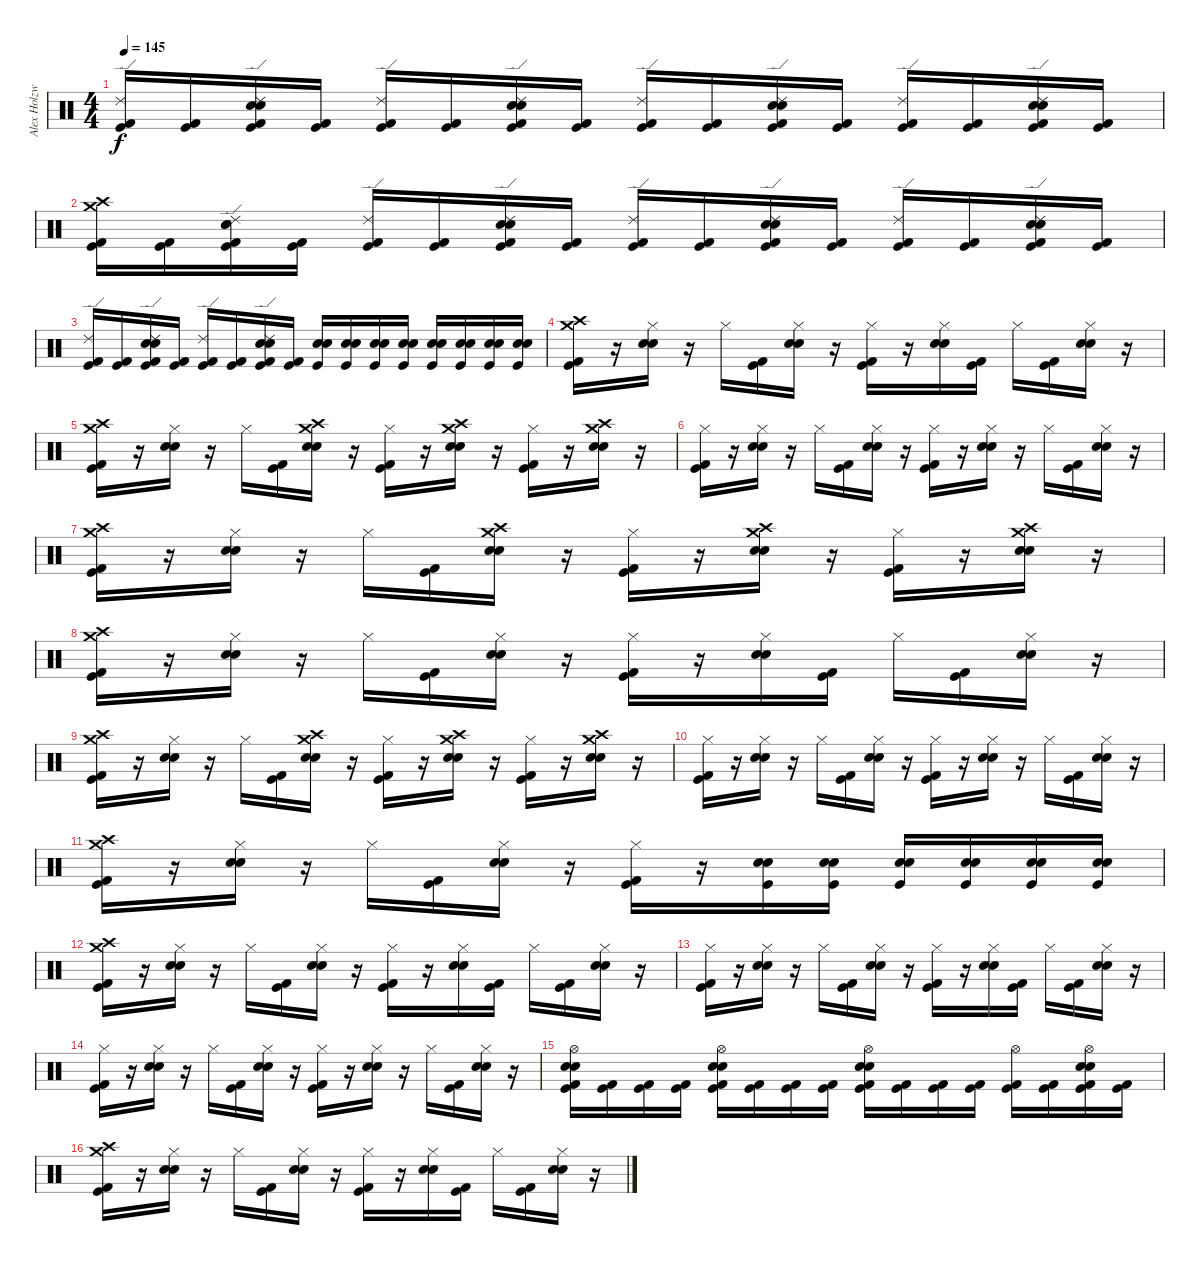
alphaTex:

\track ("Alex Holzwarth" "Alex Holzw") {instrument percussion}
\staff {score}
\articulation defaults
\ts (4 4)
\tempo 145
\clef neutral
\ks c
("Ride (edge) 2" "Kick (hit) 2" "Kick (hit)").16{dy f} ("Kick (hit) 2" "Kick (hit)").16 ("Ride (edge) 2" "Snare (hit) 2" "Electric Snare (hit)" "Kick (hit) 2" "Kick (hit)").16 ("Kick (hit) 2" "Kick (hit)").16 ("Ride (edge) 2" "Kick (hit) 2" "Kick (hit)").16 ("Kick (hit) 2" "Kick (hit)").16 ("Ride (edge) 2" "Electric Snare (hit)" "Snare (hit) 2" "Kick (hit) 2" "Kick (hit)").16 ("Kick (hit) 2" "Kick (hit)").16 ("Ride (edge) 2" "Kick (hit) 2" "Kick (hit)").16 ("Kick (hit) 2" "Kick (hit)").16 ("Ride (edge) 2" "Snare (hit) 2" "Electric Snare (hit)" "Kick (hit) 2" "Kick (hit)").16 ("Kick (hit) 2" "Kick (hit)").16 ("Ride (edge) 2" "Kick (hit) 2" "Kick (hit)").16 ("Kick (hit) 2" "Kick (hit)").16 ("Ride (edge) 2" "Electric Snare (hit)" "Snare (hit) 2" "Kick (hit) 2" "Kick (hit)").16 ("Kick (hit) 2" "Kick (hit)").16 |
("Crash high (hit)" "Crash medium (hit)" "Kick (hit) 2" "Kick (hit)").16 ("Kick (hit) 2" "Kick (hit)").16 ("Ride (edge) 2" "Snare (hit) 2" "Electric Snare (hit)" "Kick (hit) 2" "Kick (hit)").16 ("Kick (hit) 2" "Kick (hit)").16 ("Ride (edge) 2" "Kick (hit) 2" "Kick (hit)").16 ("Kick (hit) 2" "Kick (hit)").16 ("Ride (edge) 2" "Electric Snare (hit)" "Snare (hit) 2" "Kick (hit) 2" "Kick (hit)").16 ("Kick (hit) 2" "Kick (hit)").16 ("Ride (edge) 2" "Kick (hit) 2" "Kick (hit)").16 ("Kick (hit) 2" "Kick (hit)").16 ("Ride (edge) 2" "Snare (hit) 2" "Electric Snare (hit)" "Kick (hit) 2" "Kick (hit)").16 ("Kick (hit) 2" "Kick (hit)").16 ("Ride (edge) 2" "Kick (hit) 2" "Kick (hit)").16 ("Kick (hit) 2" "Kick (hit)").16 ("Ride (edge) 2" "Electric Snare (hit)" "Snare (hit) 2" "Kick (hit) 2" "Kick (hit)").16 ("Kick (hit) 2" "Kick (hit)").16 |
("Ride (edge) 2" "Kick (hit) 2" "Kick (hit)").16 ("Kick (hit) 2" "Kick (hit)").16 ("Ride (edge) 2" "Snare (hit) 2" "Electric Snare (hit)" "Kick (hit) 2" "Kick (hit)").16 ("Kick (hit) 2" "Kick (hit)").16 ("Ride (edge) 2" "Kick (hit) 2" "Kick (hit)").16 ("Kick (hit) 2" "Kick (hit)").16 ("Ride (edge) 2" "Electric Snare (hit)" "Snare (hit) 2" "Kick (hit) 2" "Kick (hit)").16 ("Kick (hit) 2" "Kick (hit)").16 ("Kick (hit)" "Electric Snare (hit)" "Snare (hit) 2").16 ("Kick (hit)" "Electric Snare (hit)" "Snare (hit) 2").16 ("Kick (hit)" "Electric Snare (hit)" "Snare (hit) 2").16 ("Kick (hit)" "Electric Snare (hit)" "Snare (hit) 2").16 ("Kick (hit)" "Electric Snare (hit)" "Snare (hit) 2").16 ("Kick (hit)" "Electric Snare (hit)" "Snare (hit) 2").16 ("Kick (hit)" "Electric Snare (hit)" "Snare (hit) 2").16 ("Kick (hit)" "Electric Snare (hit)" "Snare (hit) 2").16 |
("Crash high (hit)" "Crash medium (hit)" "Kick (hit) 2" "Kick (hit)").16 r.16 ("Hi-Hat (closed)" "Electric Snare (hit)" "Snare (hit) 2").16 r.16 "Hi-Hat (closed)".16 ("Kick (hit)" "Kick (hit) 2").16 ("Electric Snare (hit)" "Snare (hit) 2" "Hi-Hat (closed)").16 r.16 ("Kick (hit) 2" "Hi-Hat (closed)" "Kick (hit)").16 r.16 ("Electric Snare (hit)" "Hi-Hat (closed)" "Snare (hit) 2").16 ("Kick (hit) 2" "Kick (hit)").16 "Hi-Hat (closed)".16 ("Kick (hit) 2" "Kick (hit)").16 ("Electric Snare (hit)" "Snare (hit) 2" "Hi-Hat (closed)").16 r.16 |
("Crash medium (hit)" "Crash high (hit)" "Kick (hit) 2" "Kick (hit)").16 r.16 ("Electric Snare (hit)" "Hi-Hat (closed)" "Snare (hit) 2").16 r.16 "Hi-Hat (closed)".16 ("Kick (hit) 2" "Kick (hit)").16 ("Crash medium (hit)" "Crash high (hit)" "Electric Snare (hit)" "Snare (hit) 2").16 r.16 ("Hi-Hat (closed)" "Kick (hit) 2" "Kick (hit)").16 r.16 ("Crash high (hit)" "Crash medium (hit)" "Electric Snare (hit)" "Snare (hit) 2").16 r.16 ("Hi-Hat (closed)" "Kick (hit) 2" "Kick (hit)").16 r.16 ("Crash high (hit)" "Crash medium (hit)" "Electric Snare (hit)" "Snare (hit) 2").16 r.16 |
("Hi-Hat (closed)" "Kick (hit) 2" "Kick (hit)").16 r.16 ("Hi-Hat (closed)" "Electric Snare (hit)" "Snare (hit) 2").16 r.16 "Hi-Hat (closed)".16 ("Kick (hit) 2" "Kick (hit)").16 ("Electric Snare (hit)" "Snare (hit) 2" "Hi-Hat (closed)").16 r.16 ("Hi-Hat (closed)" "Kick (hit) 2" "Kick (hit)").16 r.16 ("Hi-Hat (closed)" "Electric Snare (hit)" "Snare (hit) 2").16 r.16 "Hi-Hat (closed)".16 ("Kick (hit) 2" "Kick (hit)").16 ("Electric Snare (hit)" "Snare (hit) 2" "Hi-Hat (closed)").16 r.16 |
("Crash high (hit)" "Crash medium (hit)" "Kick (hit) 2" "Kick (hit)").16 r.16 ("Hi-Hat (closed)" "Electric Snare (hit)" "Snare (hit) 2").16 r.16 "Hi-Hat (closed)".16 ("Kick (hit) 2" "Kick (hit)").16 ("Crash medium (hit)" "Crash high (hit)" "Electric Snare (hit)" "Snare (hit) 2").16 r.16 ("Hi-Hat (closed)" "Kick (hit) 2" "Kick (hit)").16 r.16 ("Crash high (hit)" "Crash medium (hit)" "Electric Snare (hit)" "Snare (hit) 2").16 r.16 ("Hi-Hat (closed)" "Kick (hit) 2" "Kick (hit)").16 r.16 ("Crash medium (hit)" "Crash high (hit)" "Electric Snare (hit)" "Snare (hit) 2").16 r.16 |
("Crash high (hit)" "Crash medium (hit)" "Kick (hit) 2" "Kick (hit)").16 r.16 ("Hi-Hat (closed)" "Electric Snare (hit)" "Snare (hit) 2").16 r.16 "Hi-Hat (closed)".16 ("Kick (hit)" "Kick (hit) 2").16 ("Electric Snare (hit)" "Snare (hit) 2" "Hi-Hat (closed)").16 r.16 ("Kick (hit) 2" "Hi-Hat (closed)" "Kick (hit)").16 r.16 ("Electric Snare (hit)" "Hi-Hat (closed)" "Snare (hit) 2").16 ("Kick (hit) 2" "Kick (hit)").16 "Hi-Hat (closed)".16 ("Kick (hit) 2" "Kick (hit)").16 ("Electric Snare (hit)" "Snare (hit) 2" "Hi-Hat (closed)").16 r.16 |
("Crash medium (hit)" "Crash high (hit)" "Kick (hit) 2" "Kick (hit)").16 r.16 ("Electric Snare (hit)" "Hi-Hat (closed)" "Snare (hit) 2").16 r.16 "Hi-Hat (closed)".16 ("Kick (hit) 2" "Kick (hit)").16 ("Crash medium (hit)" "Crash high (hit)" "Electric Snare (hit)" "Snare (hit) 2").16 r.16 ("Hi-Hat (closed)" "Kick (hit) 2" "Kick (hit)").16 r.16 ("Crash high (hit)" "Crash medium (hit)" "Electric Snare (hit)" "Snare (hit) 2").16 r.16 ("Hi-Hat (closed)" "Kick (hit) 2" "Kick (hit)").16 r.16 ("Crash high (hit)" "Crash medium (hit)" "Electric Snare (hit)" "Snare (hit) 2").16 r.16 |
("Hi-Hat (closed)" "Kick (hit) 2" "Kick (hit)").16 r.16 ("Hi-Hat (closed)" "Electric Snare (hit)" "Snare (hit) 2").16 r.16 "Hi-Hat (closed)".16 ("Kick (hit) 2" "Kick (hit)").16 ("Electric Snare (hit)" "Snare (hit) 2" "Hi-Hat (closed)").16 r.16 ("Hi-Hat (closed)" "Kick (hit) 2" "Kick (hit)").16 r.16 ("Hi-Hat (closed)" "Electric Snare (hit)" "Snare (hit) 2").16 r.16 "Hi-Hat (closed)".16 ("Kick (hit) 2" "Kick (hit)").16 ("Electric Snare (hit)" "Snare (hit) 2" "Hi-Hat (closed)").16 r.16 |
("Crash high (hit)" "Crash medium (hit)" "Kick (hit) 2" "Kick (hit)").16 r.16 ("Hi-Hat (closed)" "Electric Snare (hit)" "Snare (hit) 2").16 r.16 "Hi-Hat (closed)".16 ("Kick (hit) 2" "Kick (hit)").16 ("Electric Snare (hit)" "Snare (hit) 2" "Hi-Hat (closed)").16 r.16 ("Hi-Hat (closed)" "Kick (hit) 2" "Kick (hit)").16 r.16 ("Kick (hit)" "Electric Snare (hit)" "Snare (hit) 2").16 ("Kick (hit)" "Electric Snare (hit)" "Snare (hit) 2").16 ("Kick (hit)" "Electric Snare (hit)" "Snare (hit) 2").16 ("Kick (hit)" "Electric Snare (hit)" "Snare (hit) 2").16 ("Kick (hit)" "Electric Snare (hit)" "Snare (hit) 2").16 ("Kick (hit)" "Electric Snare (hit)" "Snare (hit) 2").16 |
("Crash medium (hit)" "Crash high (hit)" "Kick (hit) 2" "Kick (hit)").16 r.16 ("Hi-Hat (closed)" "Electric Snare (hit)" "Snare (hit) 2").16 r.16 "Hi-Hat (closed)".16 ("Kick (hit) 2" "Kick (hit)").16 ("Electric Snare (hit)" "Snare (hit) 2" "Hi-Hat (closed)").16 r.16 ("Hi-Hat (closed)" "Kick (hit) 2" "Kick (hit)").16 r.16 ("Hi-Hat (closed)" "Electric Snare (hit)" "Snare (hit) 2").16 ("Kick (hit) 2" "Kick (hit)").16 "Hi-Hat (closed)".16 ("Kick (hit) 2" "Kick (hit)").16 ("Electric Snare (hit)" "Snare (hit) 2" "Hi-Hat (closed)").16 r.16 |
("Hi-Hat (closed)" "Kick (hit) 2" "Kick (hit)").16 r.16 ("Hi-Hat (closed)" "Electric Snare (hit)" "Snare (hit) 2").16 r.16 "Hi-Hat (closed)".16 ("Kick (hit) 2" "Kick (hit)").16 ("Electric Snare (hit)" "Snare (hit) 2" "Hi-Hat (closed)").16 r.16 ("Hi-Hat (closed)" "Kick (hit) 2" "Kick (hit)").16 r.16 ("Hi-Hat (closed)" "Electric Snare (hit)" "Snare (hit) 2").16 ("Kick (hit) 2" "Kick (hit)").16 "Hi-Hat (closed)".16 ("Kick (hit) 2" "Kick (hit)").16 ("Electric Snare (hit)" "Snare (hit) 2" "Hi-Hat (closed)").16 r.16 |
("Hi-Hat (closed)" "Kick (hit) 2" "Kick (hit)").16 r.16 ("Hi-Hat (closed)" "Electric Snare (hit)" "Snare (hit) 2").16 r.16 "Hi-Hat (closed)".16 ("Kick (hit) 2" "Kick (hit)").16 ("Electric Snare (hit)" "Snare (hit) 2" "Hi-Hat (closed)").16 r.16 ("Hi-Hat (closed)" "Kick (hit) 2" "Kick (hit)").16 r.16 ("Hi-Hat (closed)" "Electric Snare (hit)" "Snare (hit) 2").16 r.16 "Hi-Hat (closed)".16 ("Kick (hit) 2" "Kick (hit)").16 ("Electric Snare (hit)" "Snare (hit) 2" "Hi-Hat (closed)").16 r.16 |
("Hi-Hat (open)" "Snare (hit) 2" "Electric Snare (hit)" "Kick (hit) 2" "Kick (hit)").16 ("Kick (hit) 2" "Kick (hit)").16 ("Kick (hit) 2" "Kick (hit)").16 ("Kick (hit) 2" "Kick (hit)").16 ("Hi-Hat (open)" "Electric Snare (hit)" "Snare (hit) 2" "Kick (hit) 2" "Kick (hit)").16 ("Kick (hit) 2" "Kick (hit)").16 ("Kick (hit) 2" "Kick (hit)").16 ("Kick (hit) 2" "Kick (hit)").16 ("Hi-Hat (open)" "Electric Snare (hit)" "Snare (hit) 2" "Kick (hit) 2" "Kick (hit)").16 ("Kick (hit) 2" "Kick (hit)").16 ("Kick (hit) 2" "Kick (hit)").16 ("Kick (hit) 2" "Kick (hit)").16 ("Hi-Hat (open)" "Kick (hit) 2" "Kick (hit)").16 ("Kick (hit) 2" "Kick (hit)").16 ("Hi-Hat (open)" "Electric Snare (hit)" "Snare (hit) 2" "Kick (hit) 2" "Kick (hit)").16 ("Kick (hit) 2" "Kick (hit)").16 |
("Crash medium (hit)" "Crash high (hit)" "Kick (hit) 2" "Kick (hit)").16 r.16 ("Hi-Hat (closed)" "Electric Snare (hit)" "Snare (hit) 2").16 r.16 "Hi-Hat (closed)".16 ("Kick (hit) 2" "Kick (hit)").16 ("Electric Snare (hit)" "Snare (hit) 2" "Hi-Hat (closed)").16 r.16 ("Hi-Hat (closed)" "Kick (hit) 2" "Kick (hit)").16 r.16 ("Hi-Hat (closed)" "Electric Snare (hit)" "Snare (hit) 2").16 ("Kick (hit) 2" "Kick (hit)").16 "Hi-Hat (closed)".16 ("Kick (hit) 2" "Kick (hit)").16 ("Electric Snare (hit)" "Snare (hit) 2" "Hi-Hat (closed)").16 r.16
